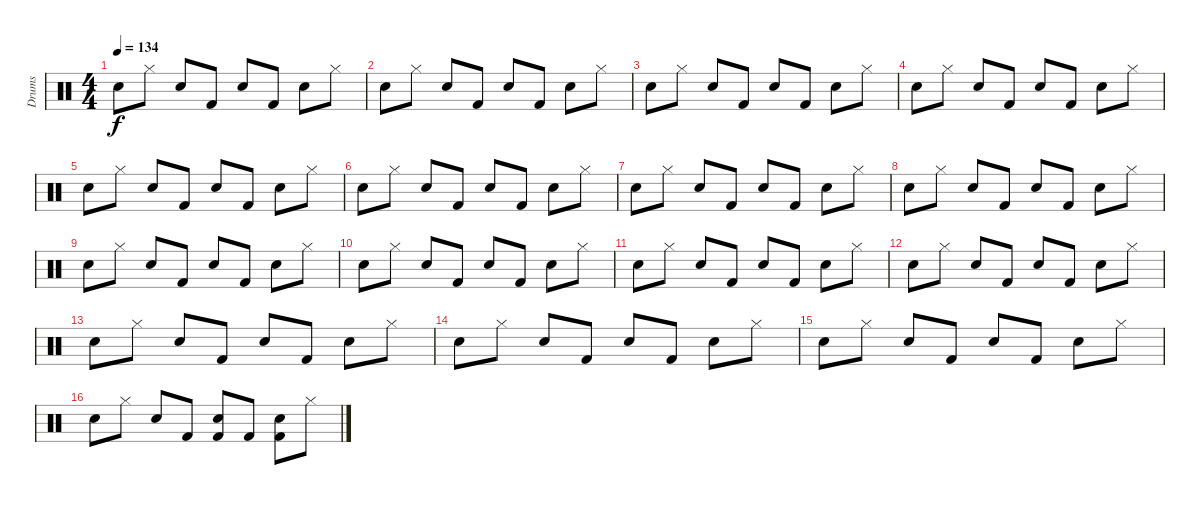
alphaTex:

\track ("Drums" "Drums") {instrument percussion}
\staff {score}
\articulation defaults
\ts (4 4)
\tempo 134
\clef neutral
\ks c "Electric Snare (hit)".8{dy f} "Hi-Hat (closed)".8 "Electric Snare (hit)".8 "Kick (hit) 2".8 "Electric Snare (hit)".8 "Kick (hit) 2".8 "Electric Snare (hit)".8 "Hi-Hat (closed)".8
|
"Electric Snare (hit)".8 "Hi-Hat (closed)".8 "Electric Snare (hit)".8 "Kick (hit) 2".8 "Electric Snare (hit)".8 "Kick (hit) 2".8 "Electric Snare (hit)".8 "Hi-Hat (closed)".8 |
"Electric Snare (hit)".8 "Hi-Hat (closed)".8 "Electric Snare (hit)".8 "Kick (hit) 2".8 "Electric Snare (hit)".8 "Kick (hit) 2".8 "Electric Snare (hit)".8 "Hi-Hat (closed)".8 |
"Electric Snare (hit)".8 "Hi-Hat (closed)".8 "Electric Snare (hit)".8 "Kick (hit) 2".8 "Electric Snare (hit)".8 "Kick (hit) 2".8 "Electric Snare (hit)".8 "Hi-Hat (closed)".8 |
"Electric Snare (hit)".8 "Hi-Hat (closed)".8 "Electric Snare (hit)".8 "Kick (hit) 2".8 "Electric Snare (hit)".8 "Kick (hit) 2".8 "Electric Snare (hit)".8 "Hi-Hat (closed)".8 |
"Electric Snare (hit)".8 "Hi-Hat (closed)".8 "Electric Snare (hit)".8 "Kick (hit) 2".8 "Electric Snare (hit)".8 "Kick (hit) 2".8 "Electric Snare (hit)".8 "Hi-Hat (closed)".8 |
"Electric Snare (hit)".8 "Hi-Hat (closed)".8 "Electric Snare (hit)".8 "Kick (hit) 2".8 "Electric Snare (hit)".8 "Kick (hit) 2".8 "Electric Snare (hit)".8 "Hi-Hat (closed)".8 |
"Electric Snare (hit)".8 "Hi-Hat (closed)".8 "Electric Snare (hit)".8 "Kick (hit) 2".8 "Electric Snare (hit)".8 "Kick (hit) 2".8 "Electric Snare (hit)".8 "Hi-Hat (closed)".8 |
"Electric Snare (hit)".8 "Hi-Hat (closed)".8 "Electric Snare (hit)".8 "Kick (hit) 2".8 "Electric Snare (hit)".8 "Kick (hit) 2".8 "Electric Snare (hit)".8 "Hi-Hat (closed)".8 |
"Electric Snare (hit)".8 "Hi-Hat (closed)".8 "Electric Snare (hit)".8 "Kick (hit) 2".8 "Electric Snare (hit)".8 "Kick (hit) 2".8 "Electric Snare (hit)".8 "Hi-Hat (closed)".8 |
"Electric Snare (hit)".8 "Hi-Hat (closed)".8 "Electric Snare (hit)".8 "Kick (hit) 2".8 "Electric Snare (hit)".8 "Kick (hit) 2".8 "Electric Snare (hit)".8 "Hi-Hat (closed)".8 |
"Electric Snare (hit)".8 "Hi-Hat (closed)".8 "Electric Snare (hit)".8 "Kick (hit) 2".8 "Electric Snare (hit)".8 "Kick (hit) 2".8 "Electric Snare (hit)".8 "Hi-Hat (closed)".8 |
"Electric Snare (hit)".8 "Hi-Hat (closed)".8 "Electric Snare (hit)".8 "Kick (hit) 2".8 "Electric Snare (hit)".8 "Kick (hit) 2".8 "Electric Snare (hit)".8 "Hi-Hat (closed)".8 |
"Electric Snare (hit)".8 "Hi-Hat (closed)".8 "Electric Snare (hit)".8 "Kick (hit) 2".8 "Electric Snare (hit)".8 "Kick (hit) 2".8 "Electric Snare (hit)".8 "Hi-Hat (closed)".8 |
"Electric Snare (hit)".8 "Hi-Hat (closed)".8 "Electric Snare (hit)".8 "Kick (hit) 2".8 "Electric Snare (hit)".8 "Kick (hit) 2".8 "Electric Snare (hit)".8 "Hi-Hat (closed)".8 |
"Electric Snare (hit)".8 "Hi-Hat (closed)".8 "Electric Snare (hit)".8 "Kick (hit) 2".8 ("Electric Snare (hit)" "Kick (hit) 2").8 "Kick (hit) 2".8 ("Electric Snare (hit)" "Kick (hit) 2").8 "Hi-Hat (closed)".8
